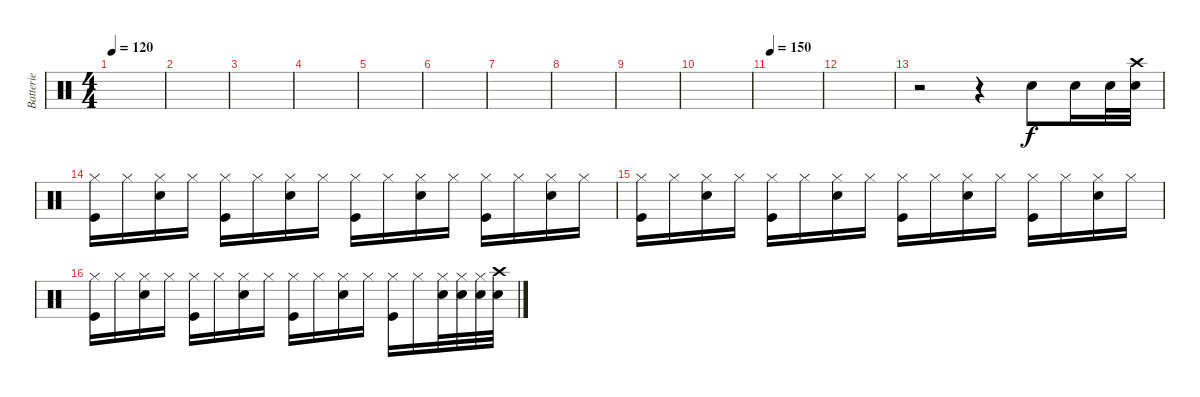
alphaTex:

\track ("Batterie" "Batterie") {instrument percussion}
\staff {score}
\articulation defaults
\ts (4 4)
\tempo 120
\clef neutral
\ks c
|
|
|
|
|
|
|
|
|
|
\tempo 150
|
|
r.2 r.4 "Snare (hit) 2".8 "Snare (hit) 2".16 "Snare (hit) 2".32 ("Snare (hit) 2" "Crash high (hit)").32 |
("Hi-Hat (closed)" "Kick (hit)").16 "Hi-Hat (closed)".16 ("Hi-Hat (closed)" "Snare (hit) 2").16 "Hi-Hat (closed)".16 ("Hi-Hat (closed)" "Kick (hit)").16 "Hi-Hat (closed)".16 ("Hi-Hat (closed)" "Snare (hit) 2").16 "Hi-Hat (closed)".16 ("Hi-Hat (closed)" "Kick (hit)").16 "Hi-Hat (closed)".16 ("Hi-Hat (closed)" "Snare (hit) 2").16 "Hi-Hat (closed)".16 ("Hi-Hat (closed)" "Kick (hit)").16 "Hi-Hat (closed)".16 ("Hi-Hat (closed)" "Snare (hit) 2").16 "Hi-Hat (closed)".16 |
("Hi-Hat (closed)" "Kick (hit)").16 "Hi-Hat (closed)".16 ("Hi-Hat (closed)" "Snare (hit) 2").16 "Hi-Hat (closed)".16 ("Hi-Hat (closed)" "Kick (hit)").16 "Hi-Hat (closed)".16 ("Hi-Hat (closed)" "Snare (hit) 2").16 "Hi-Hat (closed)".16 ("Hi-Hat (closed)" "Kick (hit)").16 "Hi-Hat (closed)".16 ("Hi-Hat (closed)" "Snare (hit) 2").16 "Hi-Hat (closed)".16 ("Hi-Hat (closed)" "Kick (hit)").16 "Hi-Hat (closed)".16 ("Hi-Hat (closed)" "Snare (hit) 2").16 "Hi-Hat (closed)".16 |
("Hi-Hat (closed)" "Kick (hit)").16 "Hi-Hat (closed)".16 ("Hi-Hat (closed)" "Snare (hit) 2").16 "Hi-Hat (closed)".16 ("Hi-Hat (closed)" "Kick (hit)").16 "Hi-Hat (closed)".16 ("Hi-Hat (closed)" "Snare (hit) 2").16 "Hi-Hat (closed)".16 ("Hi-Hat (closed)" "Kick (hit)").16 "Hi-Hat (closed)".16 ("Hi-Hat (closed)" "Snare (hit) 2").16 "Hi-Hat (closed)".16 ("Hi-Hat (closed)" "Kick (hit)").16 "Hi-Hat (closed)".16 ("Hi-Hat (closed)" "Snare (hit) 2").32 ("Hi-Hat (closed)" "Snare (hit) 2").32 ("Snare (hit) 2" "Hi-Hat (closed)").32 ("Snare (hit) 2" "Crash high (hit)").32
